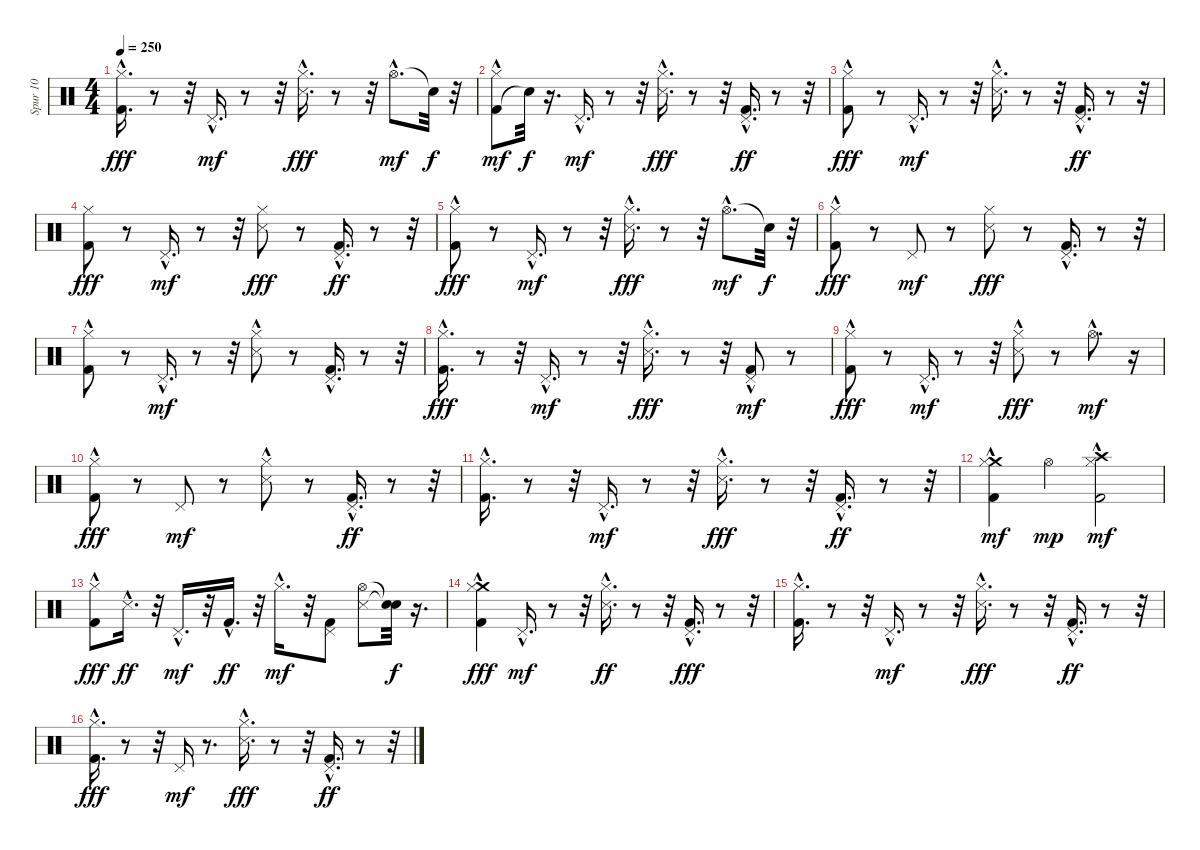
\track ("Spur 10" "Spur 10") {instrument percussion}
\staff {score}
\articulation defaults
\ts (4 4)
\tempo 250
\clef neutral
\ks c
("Hi-Hat (closed)"{hac} "Kick (hit) 2"{hac}).16{d dy fff} r.8 r.32 "Pedal Hi-Hat (hit)"{hac}.16{d dy mf} r.8 r.32 ("Hi-Hat (closed)" "Snare (side stick) 3"{hac}).16{d dy fff} r.8 r.32 "Hi-Hat (open)"{hac}.8{d dy mf} "Snare (hit)"{t}.32{dy f} r.32 |
("Kick (hit) 2"{hac} "Hi-Hat (closed)").8{dy mf} "Snare (hit)"{t}.32{dy f} r.16{d} "Pedal Hi-Hat (hit)"{hac}.16{d dy mf} r.8 r.32 ("Hi-Hat (closed)"{hac} "Snare (side stick) 3"{hac}).16{d dy fff} r.8 r.32 ("Pedal Hi-Hat (hit)"{hac} "Kick (hit) 2"{hac}).16{d dy ff} r.8 r.32 |
("Hi-Hat (closed)" "Kick (hit) 2"{hac}).8{dy fff} r.8 "Pedal Hi-Hat (hit)"{hac}.16{d dy mf} r.8 r.32 ("Snare (side stick) 3"{hac} "Hi-Hat (closed)"{hac}).16{d} r.8 r.32 ("Pedal Hi-Hat (hit)"{hac} "Kick (hit) 2"{hac}).16{d dy ff} r.8 r.32 |
("Hi-Hat (closed)" "Kick (hit) 2").8{dy fff} r.8 "Pedal Hi-Hat (hit)"{hac}.16{d dy mf} r.8 r.32 ("Hi-Hat (closed)" "Snare (side stick) 3").8{dy fff} r.8 ("Pedal Hi-Hat (hit)"{hac} "Kick (hit) 2"{hac}).16{d dy ff} r.8 r.32 |
("Hi-Hat (closed)" "Kick (hit) 2"{hac}).8{dy fff} r.8 "Pedal Hi-Hat (hit)"{hac}.16{d dy mf} r.8 r.32 ("Snare (side stick) 3"{hac} "Hi-Hat (closed)"{hac}).16{d dy fff} r.8 r.32 "Hi-Hat (open)"{hac}.8{d dy mf} "Snare (hit)"{t}.32{dy f} r.32 |
("Kick (hit) 2"{hac} "Hi-Hat (closed)").8{dy fff} r.8 "Pedal Hi-Hat (hit)".8{dy mf} r.8 ("Snare (side stick) 3" "Hi-Hat (closed)").8{dy fff} r.8 ("Pedal Hi-Hat (hit)"{hac} "Kick (hit) 2"{hac}).16{d} r.8 r.32 |
("Hi-Hat (closed)" "Kick (hit) 2"{hac}).8 r.8 "Pedal Hi-Hat (hit)"{hac}.16{d dy mf} r.8 r.32 ("Snare (side stick) 3"{hac} "Hi-Hat (closed)").8 r.8 ("Kick (hit) 2"{hac} "Pedal Hi-Hat (hit)"{hac}).16{d} r.8 r.32 |
("Hi-Hat (closed)"{hac} "Kick (hit) 2"{hac}).16{d dy fff} r.8 r.32 "Pedal Hi-Hat (hit)"{hac}.16{d dy mf} r.8 r.32 ("Hi-Hat (closed)"{hac} "Snare (side stick) 3"{hac}).16{d dy fff} r.8 r.32 ("Pedal Hi-Hat (hit)"{hac} "Kick (hit) 2").8{dy mf} r.8 |
("Hi-Hat (closed)" "Kick (hit) 2"{hac}).8{dy fff} r.8 "Pedal Hi-Hat (hit)"{hac}.16{d dy mf} r.8 r.32 ("Hi-Hat (closed)" "Snare (side stick) 3"{hac}).8{dy fff} r.8 "Hi-Hat (open)"{hac}.8{d dy mf} r.16 |
("Hi-Hat (closed)" "Kick (hit) 2"{hac}).8{dy fff} r.8 "Pedal Hi-Hat (hit)".8{dy mf} r.8 ("Snare (side stick) 3"{hac} "Hi-Hat (closed)").8 r.8 ("Pedal Hi-Hat (hit)"{hac} "Kick (hit) 2"{hac}).16{d dy ff} r.8 r.32 |
("Hi-Hat (closed)"{hac} "Kick (hit) 2"{hac}).16{d} r.8 r.32 "Pedal Hi-Hat (hit)"{hac}.16{d dy mf} r.8 r.32 ("Hi-Hat (closed)"{hac} "Snare (side stick) 3"{hac}).16{d dy fff} r.8 r.32 ("Pedal Hi-Hat (hit)"{hac} "Kick (hit) 2"{hac}).16{d dy ff} r.8 r.32 |
("Crash medium (hit)" "Kick (hit) 2" "Hi-Hat (closed)"{hac}).4{dy mf} "Hi-Hat (open)".4{dy mp} ("Crash high (hit)" "Kick (hit) 2" "Hi-Hat (closed)"{hac}).2{dy mf} |
("Hi-Hat (closed)"{hac} "Kick (hit) 2").8{dy fff} "Snare (side stick) 3"{hac}.16{d dy ff} r.32 "Pedal Hi-Hat (hit)"{hac}.16{d dy mf} r.32 "Kick (hit) 2"{hac}.16{d dy ff} r.32 "Hi-Hat (closed)"{hac}.16{d dy mf} r.32 ("Kick (hit) 2" "Pedal Hi-Hat (hit)").8 ("Snare (side stick) 3" "Hi-Hat (open)").8 ("Snare (hit)"{t} "Snare (hit)"{t}).32{dy f} r.16{d} |
("Crash medium (hit)"{hac} "Hi-Hat (closed)"{hac} "Kick (hit) 2").4{dy fff} "Pedal Hi-Hat (hit)"{hac}.16{d dy mf} r.8 r.32 ("Hi-Hat (closed)"{hac} "Snare (side stick) 3"{hac}).16{d dy ff} r.8 r.32 ("Pedal Hi-Hat (hit)"{hac} "Kick (hit) 2"{hac}).16{d dy fff} r.8 r.32 |
("Hi-Hat (closed)"{hac} "Kick (hit) 2"{hac}).16{d} r.8 r.32 "Pedal Hi-Hat (hit)"{hac}.16{d dy mf} r.8 r.32 ("Hi-Hat (closed)"{hac} "Snare (side stick) 3"{hac}).16{d dy fff} r.8 r.32 ("Pedal Hi-Hat (hit)"{hac} "Kick (hit) 2"{hac}).16{d dy ff} r.8 r.32 |
("Hi-Hat (closed)"{hac} "Kick (hit) 2"{hac}).16{d dy fff} r.8 r.32 "Pedal Hi-Hat (hit)".16{dy mf} r.8{d} ("Hi-Hat (closed)"{hac} "Snare (side stick) 3"{hac}).16{d dy fff} r.8 r.32 ("Pedal Hi-Hat (hit)"{hac} "Kick (hit) 2"{hac}).16{d dy ff} r.8 r.32
